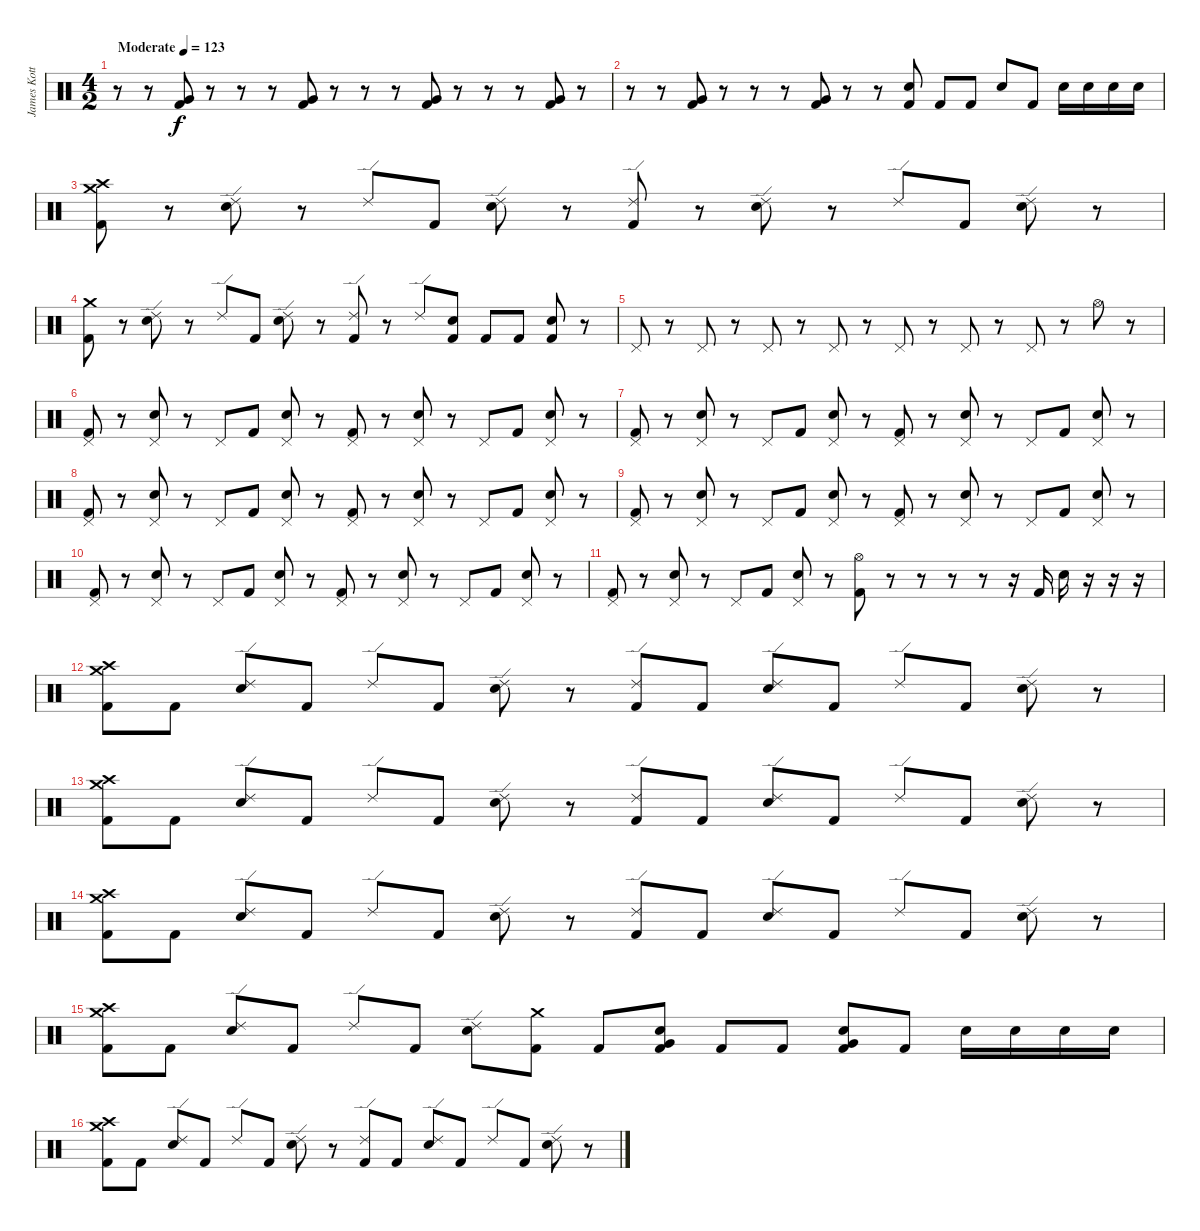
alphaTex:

\track ("James Kottak" "James Kott") {instrument percussion}
\staff {score}
\articulation defaults
\ts (4 2)
\tempo (123 "Moderate")
\clef neutral
\ks c
r.8{dy f} r.8 ("Very Low Tom (hit)" "Kick (hit) 2").8 r.8 r.8 r.8 ("Very Low Tom (hit)" "Kick (hit) 2").8 r.8 r.8 r.8 ("Very Low Tom (hit)" "Kick (hit) 2").8 r.8 r.8 r.8 ("Very Low Tom (hit)" "Kick (hit) 2").8 r.8 |
r.8 r.8 ("Very Low Tom (hit)" "Kick (hit) 2").8 r.8 r.8 r.8 ("Very Low Tom (hit)" "Kick (hit) 2").8 r.8 r.8 ("Electric Snare (hit)" "Kick (hit) 2").8{bd 120} "Kick (hit) 2".8 "Kick (hit) 2".8 "Electric Snare (hit)".8 "Kick (hit) 2".8 "Electric Snare (hit)".16 "Electric Snare (hit)".16 "Electric Snare (hit)".16 "Electric Snare (hit)".16 |
("Crash high (hit)" "Crash medium (hit)" "Kick (hit) 2").8 r.8 ("Ride (edge) 2" "Electric Snare (hit)").8 r.8 "Ride (edge) 2".8 "Kick (hit) 2".8 ("Ride (edge) 2" "Electric Snare (hit)").8 r.8 ("Ride (edge) 2" "Kick (hit) 2").8 r.8 ("Ride (edge) 2" "Electric Snare (hit)").8 r.8 "Ride (edge) 2".8 "Kick (hit) 2".8 ("Ride (edge) 2" "Electric Snare (hit)").8 r.8 |
("Crash medium (hit)" "Kick (hit) 2").8 r.8 ("Ride (edge) 2" "Electric Snare (hit)").8 r.8 "Ride (edge) 2".8 "Kick (hit) 2".8 ("Ride (edge) 2" "Electric Snare (hit)").8 r.8 ("Ride (edge) 2" "Kick (hit) 2").8 r.8 "Ride (edge) 2".8 ("Electric Snare (hit)" "Kick (hit) 2").8 "Kick (hit) 2".8 "Kick (hit) 2".8 ("Electric Snare (hit)" "Kick (hit) 2").8 r.8 |
"Pedal Hi-Hat (hit)".8 r.8 "Pedal Hi-Hat (hit)".8 r.8 "Pedal Hi-Hat (hit)".8 r.8 "Pedal Hi-Hat (hit)".8 r.8 "Pedal Hi-Hat (hit)".8 r.8 "Pedal Hi-Hat (hit)".8 r.8 "Pedal Hi-Hat (hit)".8 r.8 "Hi-Hat (open)".8 r.8 |
("Pedal Hi-Hat (hit)" "Kick (hit) 2").8 r.8 ("Pedal Hi-Hat (hit)" "Electric Snare (hit)").8 r.8 "Pedal Hi-Hat (hit)".8 "Kick (hit) 2".8 ("Pedal Hi-Hat (hit)" "Electric Snare (hit)").8 r.8 ("Pedal Hi-Hat (hit)" "Kick (hit) 2").8 r.8 ("Pedal Hi-Hat (hit)" "Electric Snare (hit)").8 r.8 "Pedal Hi-Hat (hit)".8 "Kick (hit) 2".8 ("Pedal Hi-Hat (hit)" "Electric Snare (hit)").8 r.8 |
("Pedal Hi-Hat (hit)" "Kick (hit) 2").8 r.8 ("Pedal Hi-Hat (hit)" "Electric Snare (hit)").8 r.8 "Pedal Hi-Hat (hit)".8 "Kick (hit) 2".8 ("Pedal Hi-Hat (hit)" "Electric Snare (hit)").8 r.8 ("Pedal Hi-Hat (hit)" "Kick (hit) 2").8 r.8 ("Pedal Hi-Hat (hit)" "Electric Snare (hit)").8 r.8 "Pedal Hi-Hat (hit)".8 "Kick (hit) 2".8 ("Pedal Hi-Hat (hit)" "Electric Snare (hit)").8 r.8 |
("Pedal Hi-Hat (hit)" "Kick (hit) 2").8 r.8 ("Pedal Hi-Hat (hit)" "Electric Snare (hit)").8 r.8 "Pedal Hi-Hat (hit)".8 "Kick (hit) 2".8 ("Pedal Hi-Hat (hit)" "Electric Snare (hit)").8 r.8 ("Pedal Hi-Hat (hit)" "Kick (hit) 2").8 r.8 ("Pedal Hi-Hat (hit)" "Electric Snare (hit)").8 r.8 "Pedal Hi-Hat (hit)".8 "Kick (hit) 2".8 ("Pedal Hi-Hat (hit)" "Electric Snare (hit)").8 r.8 |
("Pedal Hi-Hat (hit)" "Kick (hit) 2").8 r.8 ("Pedal Hi-Hat (hit)" "Electric Snare (hit)").8 r.8 "Pedal Hi-Hat (hit)".8 "Kick (hit) 2".8 ("Pedal Hi-Hat (hit)" "Electric Snare (hit)").8 r.8 ("Pedal Hi-Hat (hit)" "Kick (hit) 2").8 r.8 ("Pedal Hi-Hat (hit)" "Electric Snare (hit)").8 r.8 "Pedal Hi-Hat (hit)".8 "Kick (hit) 2".8 ("Pedal Hi-Hat (hit)" "Electric Snare (hit)").8 r.8 |
("Pedal Hi-Hat (hit)" "Kick (hit) 2").8 r.8 ("Pedal Hi-Hat (hit)" "Electric Snare (hit)").8 r.8 "Pedal Hi-Hat (hit)".8 "Kick (hit) 2".8 ("Pedal Hi-Hat (hit)" "Electric Snare (hit)").8 r.8 ("Pedal Hi-Hat (hit)" "Kick (hit) 2").8 r.8 ("Pedal Hi-Hat (hit)" "Electric Snare (hit)").8 r.8 "Pedal Hi-Hat (hit)".8 "Kick (hit) 2".8 ("Pedal Hi-Hat (hit)" "Electric Snare (hit)").8 r.8 |
("Pedal Hi-Hat (hit)" "Kick (hit) 2").8 r.8 ("Pedal Hi-Hat (hit)" "Electric Snare (hit)").8 r.8 "Pedal Hi-Hat (hit)".8 "Kick (hit) 2".8 ("Pedal Hi-Hat (hit)" "Electric Snare (hit)").8 r.8 ("Hi-Hat (open)" "Kick (hit) 2").8 r.8 r.8 r.8 r.8 r.16 "Kick (hit) 2".16 "Electric Snare (hit)".16 r.16 r.16 r.16 |
("Crash medium (hit)" "Crash high (hit)" "Kick (hit) 2").8 "Kick (hit) 2".8 ("Ride (edge) 2" "Electric Snare (hit)").8 "Kick (hit) 2".8 "Ride (edge) 2".8 "Kick (hit) 2".8 ("Ride (edge) 2" "Electric Snare (hit)").8 r.8 ("Ride (edge) 2" "Kick (hit) 2").8 "Kick (hit) 2".8 ("Ride (edge) 2" "Electric Snare (hit)").8 "Kick (hit) 2".8 "Ride (edge) 2".8 "Kick (hit) 2".8 ("Ride (edge) 2" "Electric Snare (hit)").8 r.8 |
("Crash medium (hit)" "Crash high (hit)" "Kick (hit) 2").8 "Kick (hit) 2".8 ("Ride (edge) 2" "Electric Snare (hit)").8 "Kick (hit) 2".8 "Ride (edge) 2".8 "Kick (hit) 2".8 ("Ride (edge) 2" "Electric Snare (hit)").8 r.8 ("Ride (edge) 2" "Kick (hit) 2").8 "Kick (hit) 2".8 ("Ride (edge) 2" "Electric Snare (hit)").8 "Kick (hit) 2".8 "Ride (edge) 2".8 "Kick (hit) 2".8 ("Ride (edge) 2" "Electric Snare (hit)").8 r.8 |
("Crash medium (hit)" "Crash high (hit)" "Kick (hit) 2").8 "Kick (hit) 2".8 ("Ride (edge) 2" "Electric Snare (hit)").8 "Kick (hit) 2".8 "Ride (edge) 2".8 "Kick (hit) 2".8 ("Ride (edge) 2" "Electric Snare (hit)").8 r.8 ("Ride (edge) 2" "Kick (hit) 2").8 "Kick (hit) 2".8 ("Ride (edge) 2" "Electric Snare (hit)").8 "Kick (hit) 2".8 "Ride (edge) 2".8 "Kick (hit) 2".8 ("Ride (edge) 2" "Electric Snare (hit)").8 r.8 |
("Crash medium (hit)" "Crash high (hit)" "Kick (hit) 2").8 "Kick (hit) 2".8 ("Ride (edge) 2" "Electric Snare (hit)").8 "Kick (hit) 2".8 "Ride (edge) 2".8 "Kick (hit) 2".8 ("Ride (edge) 2" "Electric Snare (hit)").8 ("Crash medium (hit)" "Kick (hit) 2").8 "Kick (hit) 2".8 ("Electric Snare (hit)" "Kick (hit) 2" "Very Low Tom (hit)").8 "Kick (hit) 2".8 "Kick (hit) 2".8 ("Electric Snare (hit)" "Kick (hit) 2" "Very Low Tom (hit)").8 "Kick (hit) 2".8 "Electric Snare (hit)".16 "Electric Snare (hit)".16 "Electric Snare (hit)".16 "Electric Snare (hit)".16 |
("Crash medium (hit)" "Crash high (hit)" "Kick (hit) 2").8 "Kick (hit) 2".8 ("Ride (edge) 2" "Electric Snare (hit)").8 "Kick (hit) 2".8 "Ride (edge) 2".8 "Kick (hit) 2".8 ("Ride (edge) 2" "Electric Snare (hit)").8 r.8 ("Ride (edge) 2" "Kick (hit) 2").8 "Kick (hit) 2".8 ("Ride (edge) 2" "Electric Snare (hit)").8 "Kick (hit) 2".8 "Ride (edge) 2".8 "Kick (hit) 2".8 ("Ride (edge) 2" "Electric Snare (hit)").8 r.8
